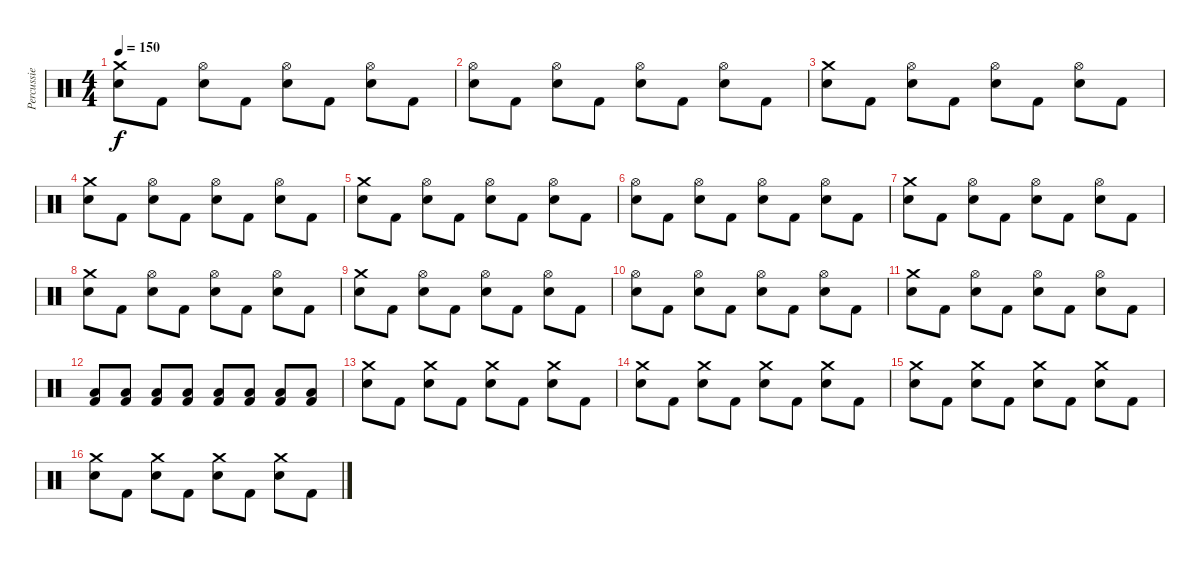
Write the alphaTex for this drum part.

\track ("Percussie" "Percussie") {instrument percussion}
\staff {score}
\articulation defaults
\ts (4 4)
\tempo 150
\clef neutral
\ks c
("Crash medium (hit)" "Snare (hit) 2").8{dy f} "Kick (hit) 2".8 ("Hi-Hat (open)" "Snare (hit) 2").8 "Kick (hit) 2".8 ("Hi-Hat (open)" "Snare (hit) 2").8 "Kick (hit) 2".8 ("Hi-Hat (open)" "Snare (hit) 2").8 "Kick (hit) 2".8 |
("Hi-Hat (open)" "Snare (hit) 2").8 "Kick (hit) 2".8 ("Hi-Hat (open)" "Snare (hit) 2").8 "Kick (hit) 2".8 ("Hi-Hat (open)" "Snare (hit) 2").8 "Kick (hit) 2".8 ("Hi-Hat (open)" "Snare (hit) 2").8 "Kick (hit) 2".8 |
("Crash medium (hit)" "Snare (hit) 2").8 "Kick (hit) 2".8 ("Hi-Hat (open)" "Snare (hit) 2").8 "Kick (hit) 2".8 ("Hi-Hat (open)" "Snare (hit) 2").8 "Kick (hit) 2".8 ("Hi-Hat (open)" "Snare (hit) 2").8 "Kick (hit) 2".8 |
("Crash medium (hit)" "Snare (hit) 2").8 "Kick (hit) 2".8 ("Hi-Hat (open)" "Snare (hit) 2").8 "Kick (hit) 2".8 ("Hi-Hat (open)" "Snare (hit) 2").8 "Kick (hit) 2".8 ("Hi-Hat (open)" "Snare (hit) 2").8 "Kick (hit) 2".8 |
("Crash medium (hit)" "Snare (hit) 2").8 "Kick (hit) 2".8 ("Hi-Hat (open)" "Snare (hit) 2").8 "Kick (hit) 2".8 ("Hi-Hat (open)" "Snare (hit) 2").8 "Kick (hit) 2".8 ("Hi-Hat (open)" "Snare (hit) 2").8 "Kick (hit) 2".8 |
("Hi-Hat (open)" "Snare (hit) 2").8 "Kick (hit) 2".8 ("Hi-Hat (open)" "Snare (hit) 2").8 "Kick (hit) 2".8 ("Hi-Hat (open)" "Snare (hit) 2").8 "Kick (hit) 2".8 ("Hi-Hat (open)" "Snare (hit) 2").8 "Kick (hit) 2".8 |
("Crash medium (hit)" "Snare (hit) 2").8 "Kick (hit) 2".8 ("Hi-Hat (open)" "Snare (hit) 2").8 "Kick (hit) 2".8 ("Hi-Hat (open)" "Snare (hit) 2").8 "Kick (hit) 2".8 ("Hi-Hat (open)" "Snare (hit) 2").8 "Kick (hit) 2".8 |
("Crash medium (hit)" "Snare (hit) 2").8 "Kick (hit) 2".8 ("Hi-Hat (open)" "Snare (hit) 2").8 "Kick (hit) 2".8 ("Hi-Hat (open)" "Snare (hit) 2").8 "Kick (hit) 2".8 ("Hi-Hat (open)" "Snare (hit) 2").8 "Kick (hit) 2".8 |
("Crash medium (hit)" "Snare (hit) 2").8 "Kick (hit) 2".8 ("Hi-Hat (open)" "Snare (hit) 2").8 "Kick (hit) 2".8 ("Hi-Hat (open)" "Snare (hit) 2").8 "Kick (hit) 2".8 ("Hi-Hat (open)" "Snare (hit) 2").8 "Kick (hit) 2".8 |
("Hi-Hat (open)" "Snare (hit) 2").8 "Kick (hit) 2".8 ("Hi-Hat (open)" "Snare (hit) 2").8 "Kick (hit) 2".8 ("Hi-Hat (open)" "Snare (hit) 2").8 "Kick (hit) 2".8 ("Hi-Hat (open)" "Snare (hit) 2").8 "Kick (hit) 2".8 |
("Crash medium (hit)" "Snare (hit) 2").8 "Kick (hit) 2".8 ("Hi-Hat (open)" "Snare (hit) 2").8 "Kick (hit) 2".8 ("Hi-Hat (open)" "Snare (hit) 2").8 "Kick (hit) 2".8 ("Hi-Hat (open)" "Snare (hit) 2").8 "Kick (hit) 2".8 |
("Low Tom (hit)" "Kick (hit) 2").8 ("Low Tom (hit)" "Kick (hit) 2").8 ("Low Tom (hit)" "Kick (hit) 2").8 ("Low Tom (hit)" "Kick (hit) 2").8 ("Low Tom (hit)" "Kick (hit) 2").8 ("Low Tom (hit)" "Kick (hit) 2").8 ("Low Tom (hit)" "Kick (hit) 2").8 ("Low Tom (hit)" "Kick (hit) 2").8 |
("Crash medium (hit)" "Snare (hit) 2").8 "Kick (hit) 2".8 ("Crash medium (hit)" "Snare (hit) 2").8 "Kick (hit) 2".8 ("Crash medium (hit)" "Snare (hit) 2").8 "Kick (hit) 2".8 ("Crash medium (hit)" "Snare (hit) 2").8 "Kick (hit) 2".8 |
("Crash medium (hit)" "Snare (hit) 2").8 "Kick (hit) 2".8 ("Crash medium (hit)" "Snare (hit) 2").8 "Kick (hit) 2".8 ("Crash medium (hit)" "Snare (hit) 2").8 "Kick (hit) 2".8 ("Crash medium (hit)" "Snare (hit) 2").8 "Kick (hit) 2".8 |
("Crash medium (hit)" "Snare (hit) 2").8 "Kick (hit) 2".8 ("Crash medium (hit)" "Snare (hit) 2").8 "Kick (hit) 2".8 ("Crash medium (hit)" "Snare (hit) 2").8 "Kick (hit) 2".8 ("Crash medium (hit)" "Snare (hit) 2").8 "Kick (hit) 2".8 |
("Crash medium (hit)" "Snare (hit) 2").8 "Kick (hit) 2".8 ("Crash medium (hit)" "Snare (hit) 2").8 "Kick (hit) 2".8 ("Crash medium (hit)" "Snare (hit) 2").8 "Kick (hit) 2".8 ("Crash medium (hit)" "Snare (hit) 2").8 "Kick (hit) 2".8
